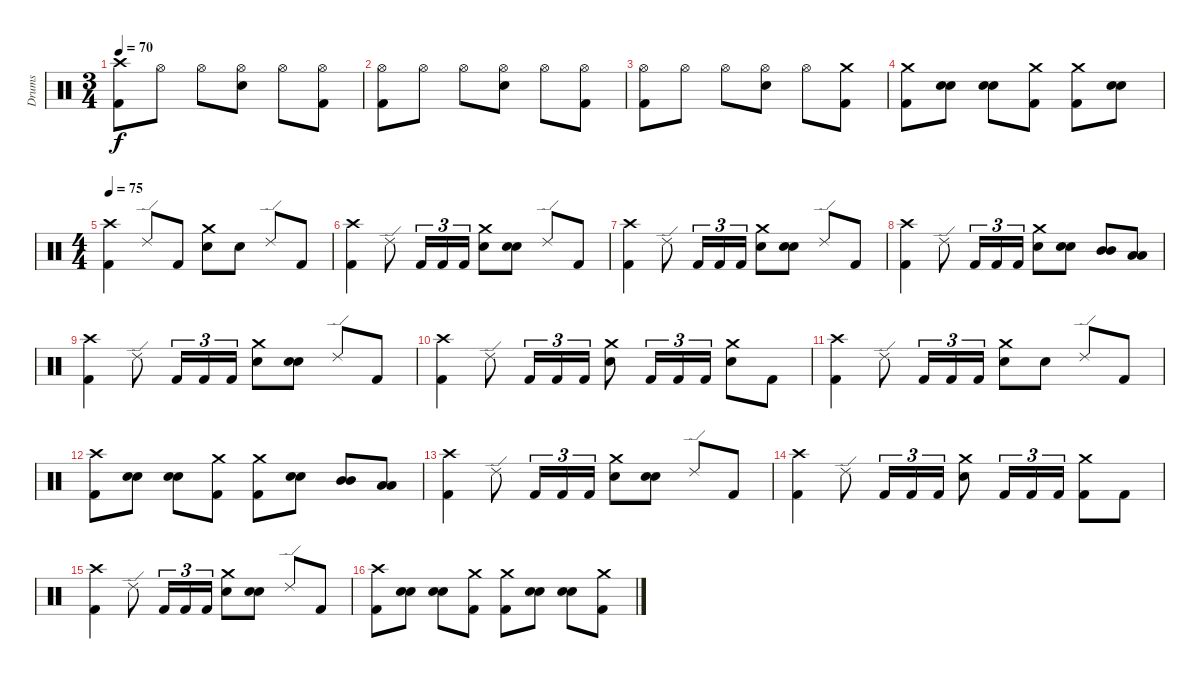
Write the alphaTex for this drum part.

\track ("Drums" "Drums") {instrument percussion}
\staff {score}
\articulation defaults
\ts (3 4)
\tempo 70
\clef neutral
\ks c
("Crash high (hit)" "Kick (hit) 2").8{dy f} "Hi-Hat (open)".8 "Hi-Hat (open)".8 ("Hi-Hat (open)" "Electric Snare (hit)").8 "Hi-Hat (open)".8 ("Hi-Hat (open)" "Kick (hit) 2").8 |
("Hi-Hat (open)" "Kick (hit) 2").8 "Hi-Hat (open)".8 "Hi-Hat (open)".8 ("Hi-Hat (open)" "Electric Snare (hit)").8 "Hi-Hat (open)".8 ("Hi-Hat (open)" "Kick (hit) 2").8 |
("Hi-Hat (open)" "Kick (hit) 2").8 "Hi-Hat (open)".8 "Hi-Hat (open)".8 ("Hi-Hat (open)" "Electric Snare (hit)").8 "Hi-Hat (open)".8 ("Crash medium (hit)" "Kick (hit) 2").8 |
("Crash medium (hit)" "Kick (hit) 2").8 ("Electric Snare (hit)" "Electric Snare (hit)").8{bu 60} ("Electric Snare (hit)" "Electric Snare (hit)").8{bu 60} ("Crash medium (hit)" "Kick (hit) 2").8 ("Crash medium (hit)" "Kick (hit) 2").8 ("Electric Snare (hit)" "Electric Snare (hit)").8{bu 60} |
\ts (4 4)
\tempo 75
("Crash high (hit)" "Kick (hit) 2").4 "Ride (edge) 2".8 "Kick (hit) 2".8 ("Crash medium (hit)" "Electric Snare (hit)").8 "Electric Snare (hit)".8 "Ride (edge) 2".8 "Kick (hit) 2".8 |
("Crash high (hit)" "Kick (hit) 2").4 "Ride (edge) 2".8 "Kick (hit) 2".16{tu (3 2)} "Kick (hit) 2".16{tu (3 2)} "Kick (hit) 2".16{tu (3 2)} ("Crash medium (hit)" "Electric Snare (hit)").8 ("Electric Snare (hit)" "Electric Snare (hit)").8{bu 60} "Ride (edge) 2".8 "Kick (hit) 2".8 |
("Crash high (hit)" "Kick (hit) 2").4 "Ride (edge) 2".8 "Kick (hit) 2".16{tu (3 2)} "Kick (hit) 2".16{tu (3 2)} "Kick (hit) 2".16{tu (3 2)} ("Crash medium (hit)" "Electric Snare (hit)").8 ("Electric Snare (hit)" "Electric Snare (hit)").8{bu 60} "Ride (edge) 2".8 "Kick (hit) 2".8 |
("Crash high (hit)" "Kick (hit) 2").4 "Ride (edge) 2".8 "Kick (hit) 2".16{tu (3 2)} "Kick (hit) 2".16{tu (3 2)} "Kick (hit) 2".16{tu (3 2)} ("Crash medium (hit)" "Electric Snare (hit)").8 ("Electric Snare (hit)" "Electric Snare (hit)").8{bu 60} ("Mid Tom (hit)" "Mid Tom (hit)").8{bu 60} ("Low Tom (hit)" "Low Tom (hit)").8{bu 60} |
("Crash high (hit)" "Kick (hit) 2").4 "Ride (edge) 2".8 "Kick (hit) 2".16{tu (3 2)} "Kick (hit) 2".16{tu (3 2)} "Kick (hit) 2".16{tu (3 2)} ("Crash medium (hit)" "Electric Snare (hit)").8 ("Electric Snare (hit)" "Electric Snare (hit)").8{bu 60} "Ride (edge) 2".8 "Kick (hit) 2".8 |
("Crash high (hit)" "Kick (hit) 2").4 "Ride (edge) 2".8 "Kick (hit) 2".16{tu (3 2)} "Kick (hit) 2".16{tu (3 2)} "Kick (hit) 2".16{tu (3 2)} ("Crash medium (hit)" "Electric Snare (hit)").8 "Kick (hit) 2".16{tu (3 2)} "Kick (hit) 2".16{tu (3 2)} "Kick (hit) 2".16{tu (3 2)} ("Crash medium (hit)" "Electric Snare (hit)").8 "Kick (hit) 2".8 |
("Crash high (hit)" "Kick (hit) 2").4 "Ride (edge) 2".8 "Kick (hit) 2".16{tu (3 2)} "Kick (hit) 2".16{tu (3 2)} "Kick (hit) 2".16{tu (3 2)} ("Crash medium (hit)" "Electric Snare (hit)").8 "Electric Snare (hit)".8 "Ride (edge) 2".8 "Kick (hit) 2".8 |
("Crash high (hit)" "Kick (hit) 2").8 ("Electric Snare (hit)" "Electric Snare (hit)").8{bu 60} ("Electric Snare (hit)" "Electric Snare (hit)").8{bu 60} ("Crash medium (hit)" "Kick (hit) 2").8 ("Crash medium (hit)" "Kick (hit) 2").8 ("Electric Snare (hit)" "Electric Snare (hit)").8{bu 60} ("Mid Tom (hit)" "Mid Tom (hit)").8{bu 60} ("Low Tom (hit)" "Low Tom (hit)").8{bu 60} |
("Crash high (hit)" "Kick (hit) 2").4 "Ride (edge) 2".8 "Kick (hit) 2".16{tu (3 2)} "Kick (hit) 2".16{tu (3 2)} "Kick (hit) 2".16{tu (3 2)} ("Crash medium (hit)" "Electric Snare (hit)").8 ("Electric Snare (hit)" "Electric Snare (hit)").8{bu 60} "Ride (edge) 2".8 "Kick (hit) 2".8 |
("Crash high (hit)" "Kick (hit) 2").4 "Ride (edge) 2".8 "Kick (hit) 2".16{tu (3 2)} "Kick (hit) 2".16{tu (3 2)} "Kick (hit) 2".16{tu (3 2)} ("Crash medium (hit)" "Electric Snare (hit)").8 "Kick (hit) 2".16{tu (3 2)} "Kick (hit) 2".16{tu (3 2)} "Kick (hit) 2".16{tu (3 2)} ("Crash medium (hit)" "Kick (hit) 2").8 "Kick (hit) 2".8 |
("Crash high (hit)" "Kick (hit) 2").4 "Ride (edge) 2".8 "Kick (hit) 2".16{tu (3 2)} "Kick (hit) 2".16{tu (3 2)} "Kick (hit) 2".16{tu (3 2)} ("Crash medium (hit)" "Electric Snare (hit)").8 ("Electric Snare (hit)" "Electric Snare (hit)").8{bu 60} "Ride (edge) 2".8 "Kick (hit) 2".8 |
("Crash high (hit)" "Kick (hit) 2").8 ("Electric Snare (hit)" "Electric Snare (hit)").8{bu 60} ("Electric Snare (hit)" "Electric Snare (hit)").8{bu 60} ("Crash medium (hit)" "Kick (hit) 2").8 ("Crash medium (hit)" "Kick (hit) 2").8 ("Electric Snare (hit)" "Electric Snare (hit)").8{bu 60} ("Electric Snare (hit)" "Electric Snare (hit)").8{bu 60} ("Crash medium (hit)" "Kick (hit) 2").8
